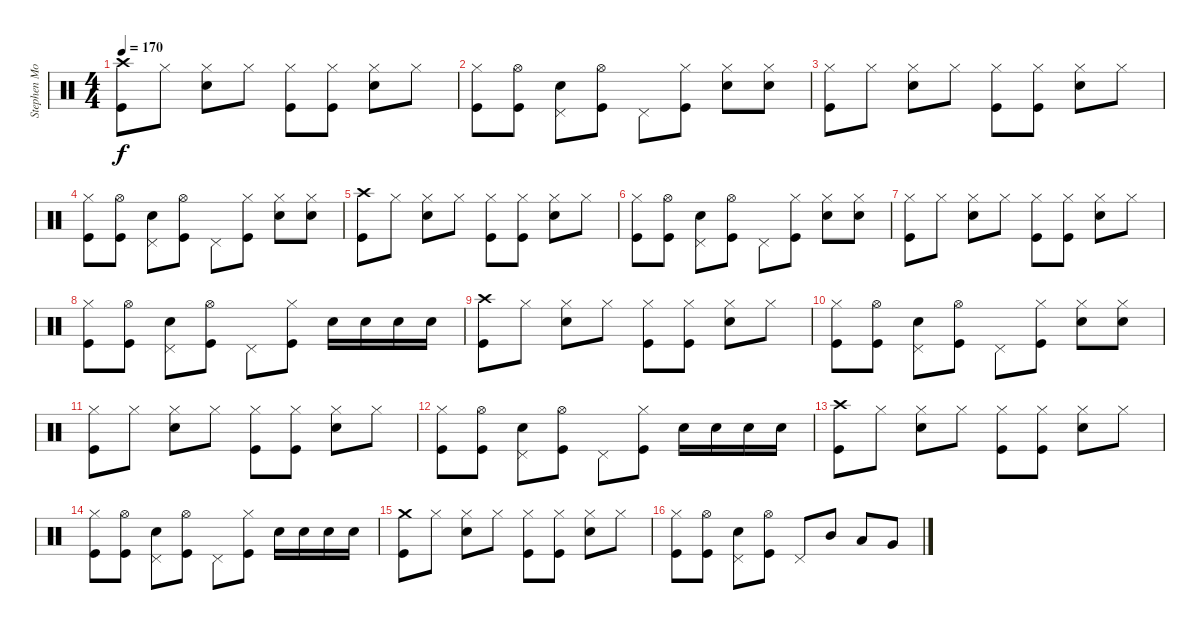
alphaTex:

\track ("Stephen Morris (Drums)" "Stephen Mo") {instrument percussion}
\staff {score}
\articulation defaults
\ts (4 4)
\tempo 170
\clef neutral
\ks c
("Crash high (hit)" "Kick (hit)").8{dy f} "Hi-Hat (closed)".8 ("Hi-Hat (closed)" "Electric Snare (hit)").8 "Hi-Hat (closed)".8 ("Hi-Hat (closed)" "Kick (hit)").8 ("Hi-Hat (closed)" "Kick (hit)").8 ("Hi-Hat (closed)" "Electric Snare (hit)").8 "Hi-Hat (closed)".8 |
("Hi-Hat (closed)" "Kick (hit)").8 ("Hi-Hat (open)" "Kick (hit)").8 ("Pedal Hi-Hat (hit)" "Electric Snare (hit)").8 ("Hi-Hat (open)" "Kick (hit)").8 "Pedal Hi-Hat (hit)".8 ("Hi-Hat (closed)" "Kick (hit)").8 ("Hi-Hat (closed)" "Electric Snare (hit)").8 ("Hi-Hat (closed)" "Electric Snare (hit)").8 |
("Hi-Hat (closed)" "Kick (hit)").8 "Hi-Hat (closed)".8 ("Hi-Hat (closed)" "Electric Snare (hit)").8 "Hi-Hat (closed)".8 ("Hi-Hat (closed)" "Kick (hit)").8 ("Hi-Hat (closed)" "Kick (hit)").8 ("Hi-Hat (closed)" "Electric Snare (hit)").8 "Hi-Hat (closed)".8 |
("Hi-Hat (closed)" "Kick (hit)").8 ("Hi-Hat (open)" "Kick (hit)").8 ("Pedal Hi-Hat (hit)" "Electric Snare (hit)").8 ("Hi-Hat (open)" "Kick (hit)").8 "Pedal Hi-Hat (hit)".8 ("Hi-Hat (closed)" "Kick (hit)").8 ("Hi-Hat (closed)" "Electric Snare (hit)").8 ("Hi-Hat (closed)" "Electric Snare (hit)").8 |
("Crash high (hit)" "Kick (hit)").8 "Hi-Hat (closed)".8 ("Hi-Hat (closed)" "Electric Snare (hit)").8 "Hi-Hat (closed)".8 ("Hi-Hat (closed)" "Kick (hit)").8 ("Hi-Hat (closed)" "Kick (hit)").8 ("Hi-Hat (closed)" "Electric Snare (hit)").8 "Hi-Hat (closed)".8 |
("Hi-Hat (closed)" "Kick (hit)").8 ("Hi-Hat (open)" "Kick (hit)").8 ("Pedal Hi-Hat (hit)" "Electric Snare (hit)").8 ("Hi-Hat (open)" "Kick (hit)").8 "Pedal Hi-Hat (hit)".8 ("Hi-Hat (closed)" "Kick (hit)").8 ("Hi-Hat (closed)" "Electric Snare (hit)").8 ("Hi-Hat (closed)" "Electric Snare (hit)").8 |
("Hi-Hat (closed)" "Kick (hit)").8 "Hi-Hat (closed)".8 ("Hi-Hat (closed)" "Electric Snare (hit)").8 "Hi-Hat (closed)".8 ("Hi-Hat (closed)" "Kick (hit)").8 ("Hi-Hat (closed)" "Kick (hit)").8 ("Hi-Hat (closed)" "Electric Snare (hit)").8 "Hi-Hat (closed)".8 |
("Hi-Hat (closed)" "Kick (hit)").8 ("Hi-Hat (open)" "Kick (hit)").8 ("Pedal Hi-Hat (hit)" "Electric Snare (hit)").8 ("Hi-Hat (open)" "Kick (hit)").8 "Pedal Hi-Hat (hit)".8 ("Hi-Hat (closed)" "Kick (hit)").8 "Electric Snare (hit)".16 "Electric Snare (hit)".16 "Electric Snare (hit)".16 "Electric Snare (hit)".16 |
("Crash high (hit)" "Kick (hit)").8 "Hi-Hat (closed)".8 ("Hi-Hat (closed)" "Electric Snare (hit)").8 "Hi-Hat (closed)".8 ("Hi-Hat (closed)" "Kick (hit)").8 ("Hi-Hat (closed)" "Kick (hit)").8 ("Hi-Hat (closed)" "Electric Snare (hit)").8 "Hi-Hat (closed)".8 |
("Hi-Hat (closed)" "Kick (hit)").8 ("Hi-Hat (open)" "Kick (hit)").8 ("Pedal Hi-Hat (hit)" "Electric Snare (hit)").8 ("Hi-Hat (open)" "Kick (hit)").8 "Pedal Hi-Hat (hit)".8 ("Hi-Hat (closed)" "Kick (hit)").8 ("Hi-Hat (closed)" "Electric Snare (hit)").8 ("Hi-Hat (closed)" "Electric Snare (hit)").8 |
("Hi-Hat (closed)" "Kick (hit)").8 "Hi-Hat (closed)".8 ("Hi-Hat (closed)" "Electric Snare (hit)").8 "Hi-Hat (closed)".8 ("Hi-Hat (closed)" "Kick (hit)").8 ("Hi-Hat (closed)" "Kick (hit)").8 ("Hi-Hat (closed)" "Electric Snare (hit)").8 "Hi-Hat (closed)".8 |
("Hi-Hat (closed)" "Kick (hit)").8 ("Hi-Hat (open)" "Kick (hit)").8 ("Pedal Hi-Hat (hit)" "Electric Snare (hit)").8 ("Hi-Hat (open)" "Kick (hit)").8 "Pedal Hi-Hat (hit)".8 ("Hi-Hat (closed)" "Kick (hit)").8 "Electric Snare (hit)".16 "Electric Snare (hit)".16 "Electric Snare (hit)".16 "Electric Snare (hit)".16 |
("Crash high (hit)" "Kick (hit)").8 "Hi-Hat (closed)".8 ("Hi-Hat (closed)" "Electric Snare (hit)").8 "Hi-Hat (closed)".8 ("Hi-Hat (closed)" "Kick (hit)").8 ("Hi-Hat (closed)" "Kick (hit)").8 ("Hi-Hat (closed)" "Electric Snare (hit)").8 "Hi-Hat (closed)".8 |
("Hi-Hat (closed)" "Kick (hit)").8 ("Hi-Hat (open)" "Kick (hit)").8 ("Pedal Hi-Hat (hit)" "Electric Snare (hit)").8 ("Hi-Hat (open)" "Kick (hit)").8 "Pedal Hi-Hat (hit)".8 ("Hi-Hat (closed)" "Kick (hit)").8 "Electric Snare (hit)".16 "Electric Snare (hit)".16 "Electric Snare (hit)".16 "Electric Snare (hit)".16 |
("Crash medium (hit)" "Kick (hit)").8 "Hi-Hat (closed)".8 ("Hi-Hat (closed)" "Electric Snare (hit)").8 "Hi-Hat (closed)".8 ("Hi-Hat (closed)" "Kick (hit)").8 ("Hi-Hat (closed)" "Kick (hit)").8 ("Hi-Hat (closed)" "Electric Snare (hit)").8 "Hi-Hat (closed)".8 |
("Hi-Hat (closed)" "Kick (hit)").8 ("Hi-Hat (open)" "Kick (hit)").8 ("Pedal Hi-Hat (hit)" "Electric Snare (hit)").8 ("Hi-Hat (open)" "Kick (hit)").8 "Pedal Hi-Hat (hit)".8 "Mid Tom (hit)".8 "Low Tom (hit)".8 "Very Low Tom (hit)".8
